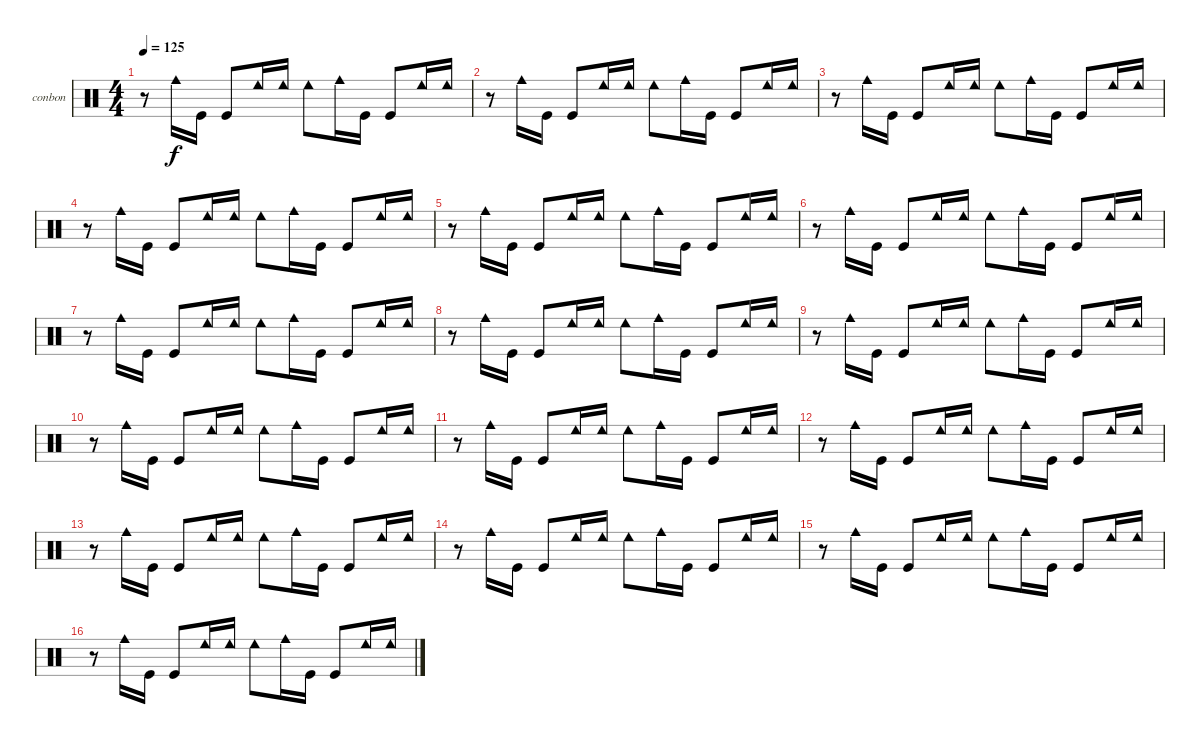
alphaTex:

\bracketExtendMode groupsimilarinstruments
\firstSystemTrackNameOrientation horizontal
\otherSystemsTrackNameOrientation horizontal
\track ("Bongos N Congas" "conbon") {instrument percussion}
\staff {score}
\articulation defaults
\ts (4 4)
\tempo 125
\clef neutral
\ks c
r.8{dy f} "Cowbell medium (hit)".16 "Kick (hit)".16 "Kick (hit)".8 "Cowbell low (hit)".16 "Cowbell low (hit)".16 "Cowbell low (hit)".8 "Cowbell medium (hit)".16 "Kick (hit)".16 "Kick (hit)".8 "Cowbell low (hit)".16 "Cowbell low (hit)".16 |
r.8 "Cowbell medium (hit)".16 "Kick (hit)".16 "Kick (hit)".8 "Cowbell low (hit)".16 "Cowbell low (hit)".16 "Cowbell low (hit)".8 "Cowbell medium (hit)".16 "Kick (hit)".16 "Kick (hit)".8 "Cowbell low (hit)".16 "Cowbell low (hit)".16 |
r.8 "Cowbell medium (hit)".16 "Kick (hit)".16 "Kick (hit)".8 "Cowbell low (hit)".16 "Cowbell low (hit)".16 "Cowbell low (hit)".8 "Cowbell medium (hit)".16 "Kick (hit)".16 "Kick (hit)".8 "Cowbell low (hit)".16 "Cowbell low (hit)".16 |
r.8 "Cowbell medium (hit)".16 "Kick (hit)".16 "Kick (hit)".8 "Cowbell low (hit)".16 "Cowbell low (hit)".16 "Cowbell low (hit)".8 "Cowbell medium (hit)".16 "Kick (hit)".16 "Kick (hit)".8 "Cowbell low (hit)".16 "Cowbell low (hit)".16 |
r.8 "Cowbell medium (hit)".16 "Kick (hit)".16 "Kick (hit)".8 "Cowbell low (hit)".16 "Cowbell low (hit)".16 "Cowbell low (hit)".8 "Cowbell medium (hit)".16 "Kick (hit)".16 "Kick (hit)".8 "Cowbell low (hit)".16 "Cowbell low (hit)".16 |
r.8 "Cowbell medium (hit)".16 "Kick (hit)".16 "Kick (hit)".8 "Cowbell low (hit)".16 "Cowbell low (hit)".16 "Cowbell low (hit)".8 "Cowbell medium (hit)".16 "Kick (hit)".16 "Kick (hit)".8 "Cowbell low (hit)".16 "Cowbell low (hit)".16 |
r.8 "Cowbell medium (hit)".16 "Kick (hit)".16 "Kick (hit)".8 "Cowbell low (hit)".16 "Cowbell low (hit)".16 "Cowbell low (hit)".8 "Cowbell medium (hit)".16 "Kick (hit)".16 "Kick (hit)".8 "Cowbell low (hit)".16 "Cowbell low (hit)".16 |
r.8 "Cowbell medium (hit)".16 "Kick (hit)".16 "Kick (hit)".8 "Cowbell low (hit)".16 "Cowbell low (hit)".16 "Cowbell low (hit)".8 "Cowbell medium (hit)".16 "Kick (hit)".16 "Kick (hit)".8 "Cowbell low (hit)".16 "Cowbell low (hit)".16 |
r.8 "Cowbell medium (hit)".16 "Kick (hit)".16 "Kick (hit)".8 "Cowbell low (hit)".16 "Cowbell low (hit)".16 "Cowbell low (hit)".8 "Cowbell medium (hit)".16 "Kick (hit)".16 "Kick (hit)".8 "Cowbell low (hit)".16 "Cowbell low (hit)".16 |
r.8 "Cowbell medium (hit)".16 "Kick (hit)".16 "Kick (hit)".8 "Cowbell low (hit)".16 "Cowbell low (hit)".16 "Cowbell low (hit)".8 "Cowbell medium (hit)".16 "Kick (hit)".16 "Kick (hit)".8 "Cowbell low (hit)".16 "Cowbell low (hit)".16 |
r.8 "Cowbell medium (hit)".16 "Kick (hit)".16 "Kick (hit)".8 "Cowbell low (hit)".16 "Cowbell low (hit)".16 "Cowbell low (hit)".8 "Cowbell medium (hit)".16 "Kick (hit)".16 "Kick (hit)".8 "Cowbell low (hit)".16 "Cowbell low (hit)".16 |
r.8 "Cowbell medium (hit)".16 "Kick (hit)".16 "Kick (hit)".8 "Cowbell low (hit)".16 "Cowbell low (hit)".16 "Cowbell low (hit)".8 "Cowbell medium (hit)".16 "Kick (hit)".16 "Kick (hit)".8 "Cowbell low (hit)".16 "Cowbell low (hit)".16 |
r.8 "Cowbell medium (hit)".16 "Kick (hit)".16 "Kick (hit)".8 "Cowbell low (hit)".16 "Cowbell low (hit)".16 "Cowbell low (hit)".8 "Cowbell medium (hit)".16 "Kick (hit)".16 "Kick (hit)".8 "Cowbell low (hit)".16 "Cowbell low (hit)".16 |
r.8 "Cowbell medium (hit)".16 "Kick (hit)".16 "Kick (hit)".8 "Cowbell low (hit)".16 "Cowbell low (hit)".16 "Cowbell low (hit)".8 "Cowbell medium (hit)".16 "Kick (hit)".16 "Kick (hit)".8 "Cowbell low (hit)".16 "Cowbell low (hit)".16 |
r.8 "Cowbell medium (hit)".16 "Kick (hit)".16 "Kick (hit)".8 "Cowbell low (hit)".16 "Cowbell low (hit)".16 "Cowbell low (hit)".8 "Cowbell medium (hit)".16 "Kick (hit)".16 "Kick (hit)".8 "Cowbell low (hit)".16 "Cowbell low (hit)".16 |
r.8 "Cowbell medium (hit)".16 "Kick (hit)".16 "Kick (hit)".8 "Cowbell low (hit)".16 "Cowbell low (hit)".16 "Cowbell low (hit)".8 "Cowbell medium (hit)".16 "Kick (hit)".16 "Kick (hit)".8 "Cowbell low (hit)".16 "Cowbell low (hit)".16
